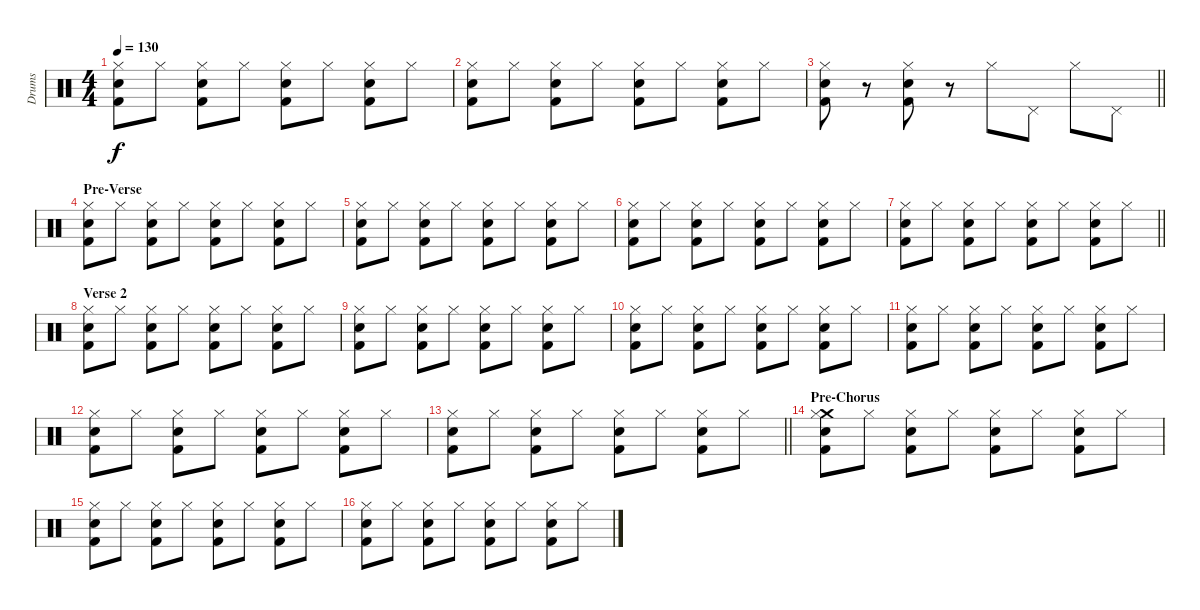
\track ("Drums" "Drums") {instrument percussion}
\staff {score}
\articulation defaults
\ts (4 4)
\tempo 130
\clef neutral
\ks c
("Hi-Hat (closed)" "Electric Snare (hit)" "Kick (hit) 2").8{dy f} "Hi-Hat (closed)".8 ("Hi-Hat (closed)" "Electric Snare (hit)" "Kick (hit) 2").8 "Hi-Hat (closed)".8 ("Hi-Hat (closed)" "Electric Snare (hit)" "Kick (hit) 2").8 "Hi-Hat (closed)".8 ("Hi-Hat (closed)" "Electric Snare (hit)" "Kick (hit) 2").8 "Hi-Hat (closed)".8 |
("Hi-Hat (closed)" "Electric Snare (hit)" "Kick (hit) 2").8 "Hi-Hat (closed)".8 ("Hi-Hat (closed)" "Electric Snare (hit)" "Kick (hit) 2").8 "Hi-Hat (closed)".8 ("Hi-Hat (closed)" "Electric Snare (hit)" "Kick (hit) 2").8 "Hi-Hat (closed)".8 ("Hi-Hat (closed)" "Electric Snare (hit)" "Kick (hit) 2").8 "Hi-Hat (closed)".8 |
\barLineRight lightlight
("Hi-Hat (closed)" "Electric Snare (hit)" "Kick (hit) 2").8 r.8 ("Hi-Hat (closed)" "Electric Snare (hit)" "Kick (hit) 2").8 r.8 "Hi-Hat (closed)".8 "Pedal Hi-Hat (hit)".8 "Hi-Hat (closed)".8 "Pedal Hi-Hat (hit)".8 |
\section ("" "Pre-Verse")
("Hi-Hat (closed)" "Electric Snare (hit)" "Kick (hit) 2").8 "Hi-Hat (closed)".8 ("Hi-Hat (closed)" "Electric Snare (hit)" "Kick (hit) 2").8 "Hi-Hat (closed)".8 ("Hi-Hat (closed)" "Electric Snare (hit)" "Kick (hit) 2").8 "Hi-Hat (closed)".8 ("Hi-Hat (closed)" "Electric Snare (hit)" "Kick (hit) 2").8 "Hi-Hat (closed)".8 |
("Hi-Hat (closed)" "Electric Snare (hit)" "Kick (hit) 2").8 "Hi-Hat (closed)".8 ("Hi-Hat (closed)" "Electric Snare (hit)" "Kick (hit) 2").8 "Hi-Hat (closed)".8 ("Hi-Hat (closed)" "Electric Snare (hit)" "Kick (hit) 2").8 "Hi-Hat (closed)".8 ("Hi-Hat (closed)" "Electric Snare (hit)" "Kick (hit) 2").8 "Hi-Hat (closed)".8 |
("Hi-Hat (closed)" "Electric Snare (hit)" "Kick (hit) 2").8 "Hi-Hat (closed)".8 ("Hi-Hat (closed)" "Electric Snare (hit)" "Kick (hit) 2").8 "Hi-Hat (closed)".8 ("Hi-Hat (closed)" "Electric Snare (hit)" "Kick (hit) 2").8 "Hi-Hat (closed)".8 ("Hi-Hat (closed)" "Electric Snare (hit)" "Kick (hit) 2").8 "Hi-Hat (closed)".8 |
\barLineRight lightlight
("Hi-Hat (closed)" "Electric Snare (hit)" "Kick (hit) 2").8 "Hi-Hat (closed)".8 ("Hi-Hat (closed)" "Electric Snare (hit)" "Kick (hit) 2").8 "Hi-Hat (closed)".8 ("Hi-Hat (closed)" "Electric Snare (hit)" "Kick (hit) 2").8 "Hi-Hat (closed)".8 ("Hi-Hat (closed)" "Electric Snare (hit)" "Kick (hit) 2").8 "Hi-Hat (closed)".8 |
\section ("" "Verse 2")
("Hi-Hat (closed)" "Electric Snare (hit)" "Kick (hit) 2").8 "Hi-Hat (closed)".8 ("Hi-Hat (closed)" "Electric Snare (hit)" "Kick (hit) 2").8 "Hi-Hat (closed)".8 ("Hi-Hat (closed)" "Electric Snare (hit)" "Kick (hit) 2").8 "Hi-Hat (closed)".8 ("Hi-Hat (closed)" "Electric Snare (hit)" "Kick (hit) 2").8 "Hi-Hat (closed)".8 |
("Hi-Hat (closed)" "Electric Snare (hit)" "Kick (hit) 2").8 "Hi-Hat (closed)".8 ("Hi-Hat (closed)" "Electric Snare (hit)" "Kick (hit) 2").8 "Hi-Hat (closed)".8 ("Hi-Hat (closed)" "Electric Snare (hit)" "Kick (hit) 2").8 "Hi-Hat (closed)".8 ("Hi-Hat (closed)" "Electric Snare (hit)" "Kick (hit) 2").8 "Hi-Hat (closed)".8 |
("Hi-Hat (closed)" "Electric Snare (hit)" "Kick (hit) 2").8 "Hi-Hat (closed)".8 ("Hi-Hat (closed)" "Electric Snare (hit)" "Kick (hit) 2").8 "Hi-Hat (closed)".8 ("Hi-Hat (closed)" "Electric Snare (hit)" "Kick (hit) 2").8 "Hi-Hat (closed)".8 ("Hi-Hat (closed)" "Electric Snare (hit)" "Kick (hit) 2").8 "Hi-Hat (closed)".8 |
("Hi-Hat (closed)" "Electric Snare (hit)" "Kick (hit) 2").8 "Hi-Hat (closed)".8 ("Hi-Hat (closed)" "Electric Snare (hit)" "Kick (hit) 2").8 "Hi-Hat (closed)".8 ("Hi-Hat (closed)" "Electric Snare (hit)" "Kick (hit) 2").8 "Hi-Hat (closed)".8 ("Hi-Hat (closed)" "Electric Snare (hit)" "Kick (hit) 2").8 "Hi-Hat (closed)".8 |
("Hi-Hat (closed)" "Electric Snare (hit)" "Kick (hit) 2").8 "Hi-Hat (closed)".8 ("Hi-Hat (closed)" "Electric Snare (hit)" "Kick (hit) 2").8 "Hi-Hat (closed)".8 ("Hi-Hat (closed)" "Electric Snare (hit)" "Kick (hit) 2").8 "Hi-Hat (closed)".8 ("Hi-Hat (closed)" "Electric Snare (hit)" "Kick (hit) 2").8 "Hi-Hat (closed)".8 |
\barLineRight lightlight
("Hi-Hat (closed)" "Electric Snare (hit)" "Kick (hit) 2").8 "Hi-Hat (closed)".8 ("Hi-Hat (closed)" "Electric Snare (hit)" "Kick (hit) 2").8 "Hi-Hat (closed)".8 ("Hi-Hat (closed)" "Electric Snare (hit)" "Kick (hit) 2").8 "Hi-Hat (closed)".8 ("Hi-Hat (closed)" "Electric Snare (hit)" "Kick (hit) 2").8 "Hi-Hat (closed)".8 |
\section ("" "Pre-Chorus")
("Crash medium (hit)" "Hi-Hat (closed)" "Electric Snare (hit)" "Kick (hit) 2").8 "Hi-Hat (closed)".8 ("Hi-Hat (closed)" "Electric Snare (hit)" "Kick (hit) 2").8 "Hi-Hat (closed)".8 ("Hi-Hat (closed)" "Electric Snare (hit)" "Kick (hit) 2").8 "Hi-Hat (closed)".8 ("Hi-Hat (closed)" "Electric Snare (hit)" "Kick (hit) 2").8 "Hi-Hat (closed)".8 |
("Hi-Hat (closed)" "Electric Snare (hit)" "Kick (hit) 2").8 "Hi-Hat (closed)".8 ("Hi-Hat (closed)" "Electric Snare (hit)" "Kick (hit) 2").8 "Hi-Hat (closed)".8 ("Hi-Hat (closed)" "Electric Snare (hit)" "Kick (hit) 2").8 "Hi-Hat (closed)".8 ("Hi-Hat (closed)" "Electric Snare (hit)" "Kick (hit) 2").8 "Hi-Hat (closed)".8 |
("Hi-Hat (closed)" "Electric Snare (hit)" "Kick (hit) 2").8 "Hi-Hat (closed)".8 ("Hi-Hat (closed)" "Electric Snare (hit)" "Kick (hit) 2").8 "Hi-Hat (closed)".8 ("Hi-Hat (closed)" "Electric Snare (hit)" "Kick (hit) 2").8 "Hi-Hat (closed)".8 ("Hi-Hat (closed)" "Electric Snare (hit)" "Kick (hit) 2").8 "Hi-Hat (closed)".8
